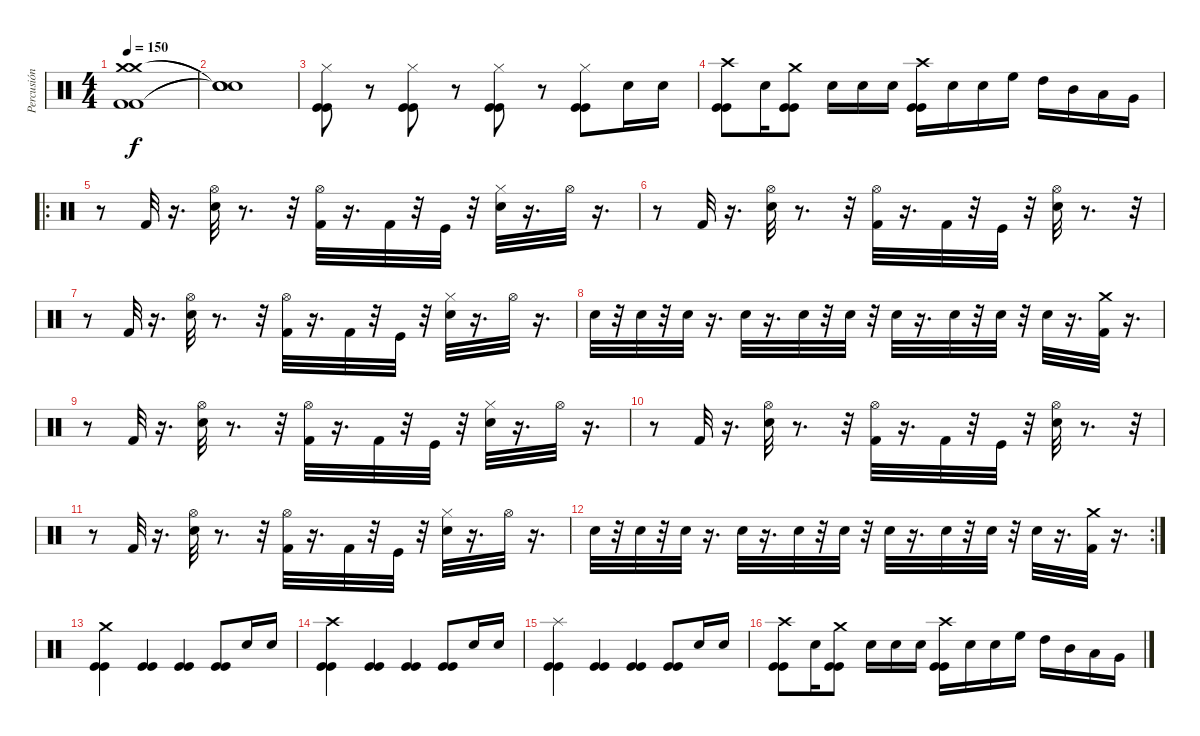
\track ("Percusión" "Percusión") {instrument percussion}
\staff {score}
\articulation defaults
\ts (4 4)
\tempo 150
\clef neutral
\ks c
("Crash medium (hit)" "Crash medium (hit)" "Kick (hit) 2" "Kick (hit) 2").1{dy f} |
("Snare (hit)"{t} "Snare (hit)"{t} "Snare (hit)"{t} "Snare (hit)"{t}).1 |
("Kick (hit)" "Kick (hit)" "Hi-Hat (closed)").8 r.8 ("Kick (hit)" "Kick (hit)" "Hi-Hat (closed)").8 r.8 ("Kick (hit)" "Kick (hit)" "Hi-Hat (closed)").8 r.8 ("Kick (hit)" "Kick (hit)" "Hi-Hat (closed)").8 "Snare (hit) 2".16 "Snare (hit) 2".16 |
("Kick (hit)" "Kick (hit)" "Crash high (hit)").8 "Snare (hit) 2".16 ("Kick (hit)" "Kick (hit)" "Crash medium (hit)").8 "Snare (hit) 2".16 "Snare (hit) 2".16 "Snare (hit) 2".16 ("Kick (hit)" "Kick (hit)" "Crash high (hit)").16 "Snare (hit) 2".16 "Snare (hit) 2".16 "High Floor Tom (hit)".16 "High Tom (hit)".16 "Mid Tom (hit)".16 "Low Tom (hit)".16 "Very Low Tom (hit)".16 |
\ro
r.8 "Kick (hit) 2".32 r.16{d} ("Snare (hit) 2" "Hi-Hat (open)").32 r.8{d} r.32 ("Kick (hit) 2" "Hi-Hat (open)").32 r.16{d} "Kick (hit) 2".32 r.32 "Kick (hit)".32 r.32 ("Snare (hit) 2" "Hi-Hat (closed)").32 r.16{d} "Hi-Hat (open)".32 r.16{d} |
r.8 "Kick (hit) 2".32 r.16{d} ("Snare (hit) 2" "Hi-Hat (open)").32 r.8{d} r.32 ("Kick (hit) 2" "Hi-Hat (open)").32 r.16{d} "Kick (hit) 2".32 r.32 "Kick (hit)".32 r.32 ("Snare (hit) 2" "Hi-Hat (open)").32 r.8{d} r.32 |
r.8 "Kick (hit) 2".32 r.16{d} ("Snare (hit) 2" "Hi-Hat (open)").32 r.8{d} r.32 ("Kick (hit) 2" "Hi-Hat (open)").32 r.16{d} "Kick (hit) 2".32 r.32 "Kick (hit)".32 r.32 ("Snare (hit) 2" "Hi-Hat (closed)").32 r.16{d} "Hi-Hat (open)".32 r.16{d} |
"Snare (hit) 2".32 r.32 "Snare (hit) 2".32 r.32 "Snare (hit) 2".32 r.16{d} "Snare (hit) 2".32 r.16{d} "Snare (hit) 2".32 r.32 "Snare (hit) 2".32 r.32 "Snare (hit) 2".32 r.16{d} "Snare (hit) 2".32 r.32 "Snare (hit) 2".32 r.32 "Snare (hit) 2".32 r.16{d} ("Crash medium (hit)" "Kick (hit) 2").32 r.16{d} |
r.8 "Kick (hit) 2".32 r.16{d} ("Snare (hit) 2" "Hi-Hat (open)").32 r.8{d} r.32 ("Kick (hit) 2" "Hi-Hat (open)").32 r.16{d} "Kick (hit) 2".32 r.32 "Kick (hit)".32 r.32 ("Snare (hit) 2" "Hi-Hat (closed)").32 r.16{d} "Hi-Hat (open)".32 r.16{d} |
r.8 "Kick (hit) 2".32 r.16{d} ("Snare (hit) 2" "Hi-Hat (open)").32 r.8{d} r.32 ("Kick (hit) 2" "Hi-Hat (open)").32 r.16{d} "Kick (hit) 2".32 r.32 "Kick (hit)".32 r.32 ("Snare (hit) 2" "Hi-Hat (open)").32 r.8{d} r.32 |
r.8 "Kick (hit) 2".32 r.16{d} ("Snare (hit) 2" "Hi-Hat (open)").32 r.8{d} r.32 ("Kick (hit) 2" "Hi-Hat (open)").32 r.16{d} "Kick (hit) 2".32 r.32 "Kick (hit)".32 r.32 ("Snare (hit) 2" "Hi-Hat (closed)").32 r.16{d} "Hi-Hat (open)".32 r.16{d} |
\rc 2 "Snare (hit) 2".32
r.32 "Snare (hit) 2".32 r.32 "Snare (hit) 2".32 r.16{d} "Snare (hit) 2".32 r.16{d} "Snare (hit) 2".32 r.32 "Snare (hit) 2".32 r.32 "Snare (hit) 2".32 r.16{d} "Snare (hit) 2".32 r.32 "Snare (hit) 2".32 r.32 "Snare (hit) 2".32 r.16{d} ("Crash medium (hit)" "Kick (hit) 2").32 r.16{d} |
("Kick (hit)" "Kick (hit)" "Crash medium (hit)").4 ("Kick (hit)" "Kick (hit)").4 ("Kick (hit)" "Kick (hit)").4 ("Kick (hit)" "Kick (hit)").8 "Snare (hit) 2".16 "Snare (hit) 2".16 |
("Kick (hit)" "Kick (hit)" "Crash high (hit)").4 ("Kick (hit)" "Kick (hit)").4 ("Kick (hit)" "Kick (hit)").4 ("Kick (hit)" "Kick (hit)").8 "Snare (hit) 2".16 "Snare (hit) 2".16 |
("Kick (hit)" "Kick (hit)" "Splash (hit)").4 ("Kick (hit)" "Kick (hit)").4 ("Kick (hit)" "Kick (hit)").4 ("Kick (hit)" "Kick (hit)").8 "Snare (hit) 2".16 "Snare (hit) 2".16 |
("Kick (hit)" "Kick (hit)" "Crash high (hit)").8 "Snare (hit) 2".16 ("Kick (hit)" "Kick (hit)" "Crash medium (hit)").8 "Snare (hit) 2".16 "Snare (hit) 2".16 "Snare (hit) 2".16 ("Kick (hit)" "Kick (hit)" "Crash high (hit)").16 "Snare (hit) 2".16 "Snare (hit) 2".16 "High Floor Tom (hit)".16 "High Tom (hit)".16 "Mid Tom (hit)".16 "Low Tom (hit)".16 "Very Low Tom (hit)".16
